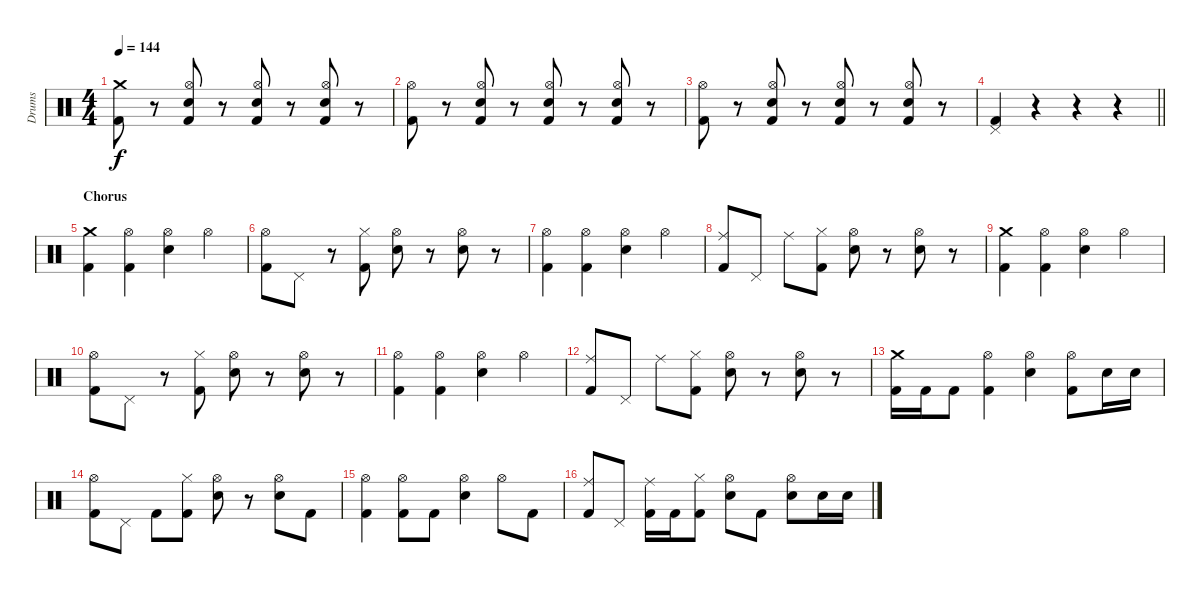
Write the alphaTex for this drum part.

\track ("Drums" "Drums") {instrument percussion}
\staff {score}
\articulation defaults
\ts (4 4)
\tempo 144
\clef neutral
\ks c
("Crash medium (hit)" "Kick (hit) 2").8{dy f} r.8 ("Hi-Hat (open)" "Electric Snare (hit)" "Kick (hit) 2").8 r.8 ("Hi-Hat (open)" "Electric Snare (hit)" "Kick (hit) 2").8 r.8 ("Hi-Hat (open)" "Electric Snare (hit)" "Kick (hit) 2").8 r.8 |
("Hi-Hat (open)" "Kick (hit) 2").8 r.8 ("Hi-Hat (open)" "Electric Snare (hit)" "Kick (hit) 2").8 r.8 ("Hi-Hat (open)" "Electric Snare (hit)" "Kick (hit) 2").8 r.8 ("Hi-Hat (open)" "Electric Snare (hit)" "Kick (hit) 2").8 r.8 |
("Hi-Hat (open)" "Kick (hit) 2").8 r.8 ("Hi-Hat (open)" "Electric Snare (hit)" "Kick (hit) 2").8 r.8 ("Hi-Hat (open)" "Electric Snare (hit)" "Kick (hit) 2").8 r.8 ("Hi-Hat (open)" "Electric Snare (hit)" "Kick (hit) 2").8 r.8 |
\barLineRight lightlight
("Pedal Hi-Hat (hit)" "Kick (hit) 2").4 r.4 r.4 r.4 |
\section ("" "Chorus")
("Crash medium (hit)" "Kick (hit) 2").4 ("Hi-Hat (open)" "Kick (hit) 2").4 ("Hi-Hat (open)" "Electric Snare (hit)").4 "Hi-Hat (open)".4 |
("Hi-Hat (open)" "Kick (hit) 2").8 "Pedal Hi-Hat (hit)".8 r.8 ("Hi-Hat (closed)" "Kick (hit) 2").8 ("Hi-Hat (open)" "Electric Snare (hit)").8 r.8 ("Hi-Hat (open)" "Electric Snare (hit)").8 r.8 |
("Hi-Hat (open)" "Kick (hit) 2").4 ("Hi-Hat (open)" "Kick (hit) 2").4 ("Hi-Hat (open)" "Electric Snare (hit)").4 "Hi-Hat (open)".4 |
("Ride (middle)" "Kick (hit) 2").8 "Pedal Hi-Hat (hit)".8 "Ride (middle)".8 ("Hi-Hat (closed)" "Kick (hit) 2").8 ("Hi-Hat (open)" "Electric Snare (hit)").8 r.8 ("Hi-Hat (open)" "Electric Snare (hit)").8 r.8 |
("Crash medium (hit)" "Kick (hit) 2").4 ("Hi-Hat (open)" "Kick (hit) 2").4 ("Hi-Hat (open)" "Electric Snare (hit)").4 "Hi-Hat (open)".4 |
("Hi-Hat (open)" "Kick (hit) 2").8 "Pedal Hi-Hat (hit)".8 r.8 ("Hi-Hat (closed)" "Kick (hit) 2").8 ("Hi-Hat (open)" "Electric Snare (hit)").8 r.8 ("Hi-Hat (open)" "Electric Snare (hit)").8 r.8 |
("Hi-Hat (open)" "Kick (hit) 2").4 ("Hi-Hat (open)" "Kick (hit) 2").4 ("Hi-Hat (open)" "Electric Snare (hit)").4 "Hi-Hat (open)".4 |
("Ride (middle)" "Kick (hit) 2").8 "Pedal Hi-Hat (hit)".8 "Ride (middle)".8 ("Hi-Hat (closed)" "Kick (hit) 2").8 ("Hi-Hat (open)" "Electric Snare (hit)").8 r.8 ("Hi-Hat (open)" "Electric Snare (hit)").8 r.8 |
("Crash medium (hit)" "Kick (hit) 2").16 "Kick (hit) 2".16 "Kick (hit) 2".8 ("Hi-Hat (open)" "Kick (hit) 2").4 ("Hi-Hat (open)" "Electric Snare (hit)").4 ("Hi-Hat (open)" "Kick (hit) 2").8 "Electric Snare (hit)".16 "Electric Snare (hit)".16 |
("Hi-Hat (open)" "Kick (hit) 2").8 "Pedal Hi-Hat (hit)".8 "Kick (hit) 2".8 ("Hi-Hat (closed)" "Kick (hit) 2").8 ("Hi-Hat (open)" "Electric Snare (hit)").8 r.8 ("Hi-Hat (open)" "Electric Snare (hit)").8 "Kick (hit) 2".8 |
("Hi-Hat (open)" "Kick (hit) 2").4 ("Hi-Hat (open)" "Kick (hit) 2").8 "Kick (hit) 2".8 ("Hi-Hat (open)" "Electric Snare (hit)").4 "Hi-Hat (open)".8 "Kick (hit) 2".8 |
("Ride (middle)" "Kick (hit) 2").8 "Pedal Hi-Hat (hit)".8 ("Ride (middle)" "Kick (hit) 2").16 "Kick (hit) 2".16 ("Hi-Hat (closed)" "Kick (hit) 2").8 ("Hi-Hat (open)" "Electric Snare (hit)").8 "Kick (hit) 2".8 ("Hi-Hat (open)" "Electric Snare (hit)").8 "Electric Snare (hit)".16 "Electric Snare (hit)".16
